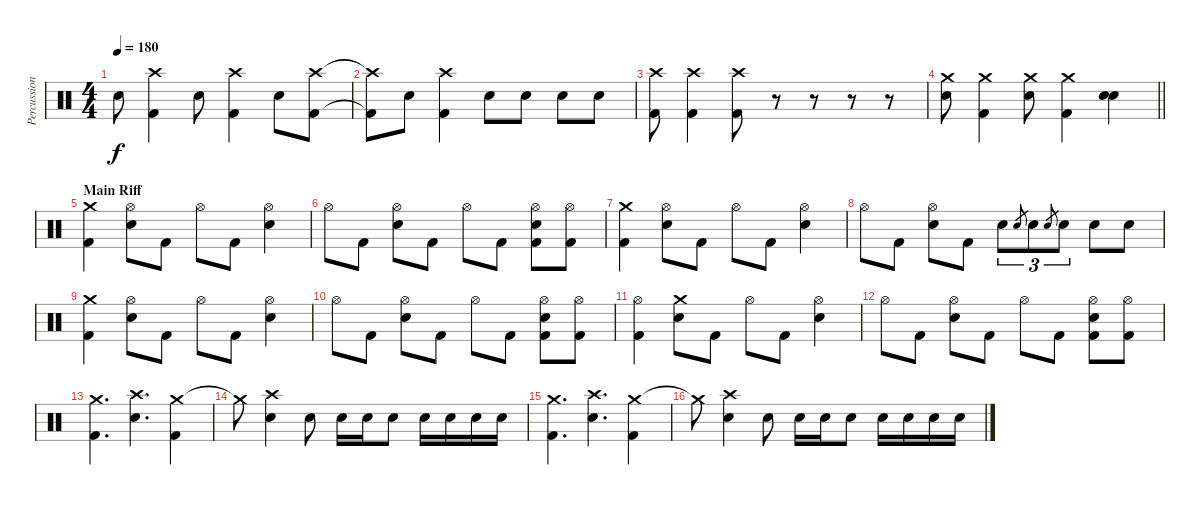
\track ("Percussion" "Percussion") {instrument percussion}
\staff {score}
\articulation defaults
\ts (4 4)
\tempo 180
\clef neutral
\ks c "Snare (hit) 2".8{dy f}
("Crash high (hit)" "Kick (hit) 2").4 "Snare (hit) 2".8 ("Crash high (hit)" "Kick (hit) 2").4 "Snare (hit) 2".8 ("Crash high (hit)" "Kick (hit) 2").8 |
("Crash high (hit)"{t} "Kick (hit) 2"{t}).8 "Snare (hit) 2".8 ("Crash high (hit)" "Kick (hit) 2").4 "Snare (hit) 2".8 "Snare (hit) 2".8 "Snare (hit) 2".8 "Snare (hit) 2".8 |
("Crash high (hit)" "Kick (hit) 2").8 ("Crash high (hit)" "Kick (hit) 2").4 ("Crash high (hit)" "Kick (hit) 2").8 r.8 r.8 r.8 r.8 |
\barLineRight lightlight
("Crash medium (hit)" "Snare (hit) 2").8 ("Crash medium (hit)" "Kick (hit) 2").4 ("Crash medium (hit)" "Snare (hit) 2").8 ("Crash medium (hit)" "Kick (hit) 2").4 ("Snare (hit) 2" "Snare (hit) 2").4 |
\section ("" "Main Riff")
("Crash medium (hit)" "Kick (hit) 2").4 ("Hi-Hat (open)" "Snare (hit) 2").8 "Kick (hit) 2".8 "Hi-Hat (open)".8 "Kick (hit) 2".8 ("Hi-Hat (open)" "Snare (hit) 2").4 |
"Hi-Hat (open)".8 "Kick (hit) 2".8 ("Hi-Hat (open)" "Snare (hit) 2").8 "Kick (hit) 2".8 "Hi-Hat (open)".8 "Kick (hit) 2".8 ("Hi-Hat (open)" "Snare (hit) 2" "Kick (hit) 2").8 ("Hi-Hat (open)" "Kick (hit) 2").8 |
("Crash medium (hit)" "Kick (hit) 2").4 ("Hi-Hat (open)" "Snare (hit) 2").8 "Kick (hit) 2".8 "Hi-Hat (open)".8 "Kick (hit) 2".8 ("Hi-Hat (open)" "Snare (hit) 2").4 |
"Hi-Hat (open)".8 "Kick (hit) 2".8 ("Hi-Hat (open)" "Snare (hit) 2").8 "Kick (hit) 2".8 "Snare (hit) 2".8{tu (3 2)} "Snare (hit) 2".8{gr} "Snare (hit) 2".8{tu (3 2)} "Snare (hit) 2".8{gr} "Snare (hit) 2".8{tu (3 2)} "Snare (hit) 2".8 "Snare (hit) 2".8 |
("Crash medium (hit)" "Kick (hit) 2").4 ("Hi-Hat (open)" "Snare (hit) 2").8 "Kick (hit) 2".8 "Hi-Hat (open)".8 "Kick (hit) 2".8 ("Hi-Hat (open)" "Snare (hit) 2").4 |
"Hi-Hat (open)".8 "Kick (hit) 2".8 ("Hi-Hat (open)" "Snare (hit) 2").8 "Kick (hit) 2".8 "Hi-Hat (open)".8 "Kick (hit) 2".8 ("Hi-Hat (open)" "Snare (hit) 2" "Kick (hit) 2").8 ("Hi-Hat (open)" "Kick (hit) 2").8 |
("Hi-Hat (open)" "Kick (hit) 2").4 ("Crash medium (hit)" "Snare (hit) 2").8 "Kick (hit) 2".8 "Hi-Hat (open)".8 "Kick (hit) 2".8 ("Hi-Hat (open)" "Snare (hit) 2").4 |
"Hi-Hat (open)".8 "Kick (hit) 2".8 ("Hi-Hat (open)" "Snare (hit) 2").8 "Kick (hit) 2".8 "Hi-Hat (open)".8 "Kick (hit) 2".8 ("Hi-Hat (open)" "Snare (hit) 2" "Kick (hit) 2").8 ("Hi-Hat (open)" "Kick (hit) 2").8 |
("Crash medium (hit)" "Kick (hit) 2").4{d} ("Crash high (hit)" "Snare (hit) 2").4{d} ("Crash medium (hit)" "Kick (hit) 2").4 |
"Crash medium (hit)"{t}.8 ("Crash high (hit)" "Snare (hit) 2").4 "Snare (hit) 2".8 "Snare (hit) 2".16 "Snare (hit) 2".16 "Snare (hit) 2".8 "Snare (hit) 2".16 "Snare (hit) 2".16 "Snare (hit) 2".16 "Snare (hit) 2".16 |
("Crash medium (hit)" "Kick (hit) 2").4{d} ("Crash high (hit)" "Snare (hit) 2").4{d} ("Crash medium (hit)" "Kick (hit) 2").4 |
"Crash medium (hit)"{t}.8 ("Crash high (hit)" "Snare (hit) 2").4 "Snare (hit) 2".8 "Snare (hit) 2".16 "Snare (hit) 2".16 "Snare (hit) 2".8 "Snare (hit) 2".16 "Snare (hit) 2".16 "Snare (hit) 2".16 "Snare (hit) 2".16
